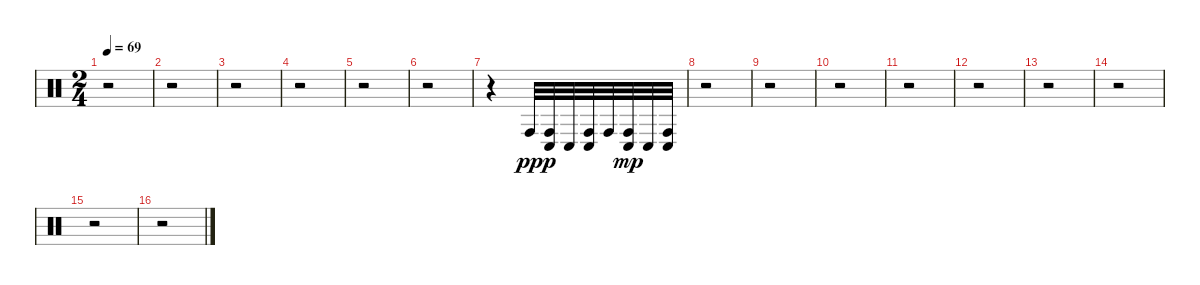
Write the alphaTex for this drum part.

\track "" {instrument percussion}
\staff {score}
\articulation defaults
\ts (2 4)
\tempo 69
\clef neutral
\ks c
r.2{dy mp} |
r.2 |
r.2 |
r.2 |
r.2 |
r.2 |
r.4 "Conga high (hit)".32{dy pp} ("Conga low (hit)" "Conga high (hit)").32{dy p} "Conga low (hit)".32 ("Conga high (hit)" "Conga low (hit)").32 "Conga high (hit)".32 ("Conga low (hit)" "Conga high (hit)").32{dy mp} "Conga low (hit)".32 ("Conga high (hit)" "Conga low (hit)").32 |
r.2 |
r.2 |
r.2 |
r.2 |
r.2 |
r.2 |
r.2 |
r.2 |
r.2
